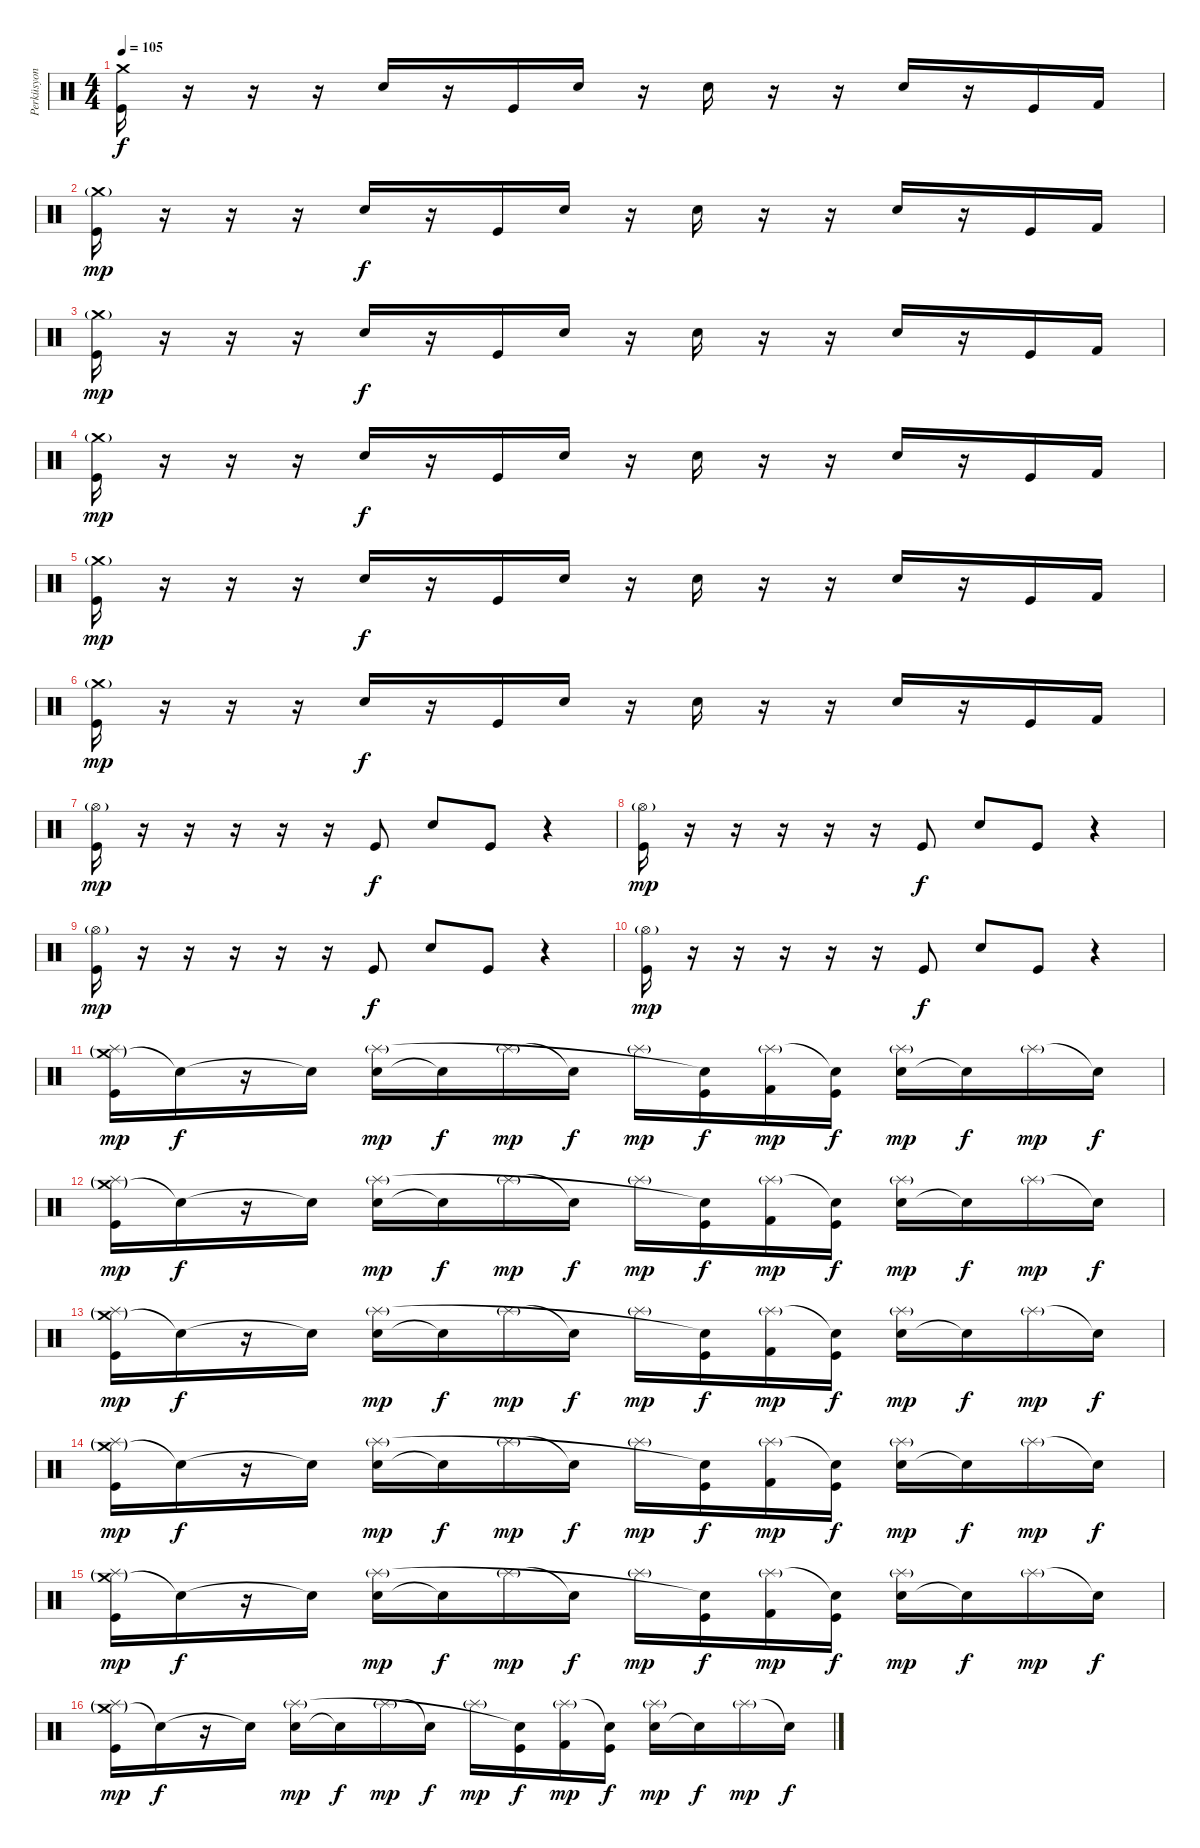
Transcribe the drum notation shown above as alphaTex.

\track ("Perküsyon" "Perküsyon") {instrument percussion}
\staff {score}
\articulation defaults
\ts (4 4)
\tempo 105
\clef neutral
\ks c
("Crash medium (hit)" "Kick (hit)").16{dy f} r.16 r.16 r.16 "Electric Snare (hit)".16 r.16 "Kick (hit)".16 "Electric Snare (hit)".16 r.16 "Electric Snare (hit)".16 r.16 r.16 "Electric Snare (hit)".16 r.16 "Kick (hit)".16 "Kick (hit) 2".16 |
("Crash medium (hit)"{g} "Kick (hit)").16{dy mp} r.16 r.16 r.16 "Electric Snare (hit)".16{dy f} r.16 "Kick (hit)".16 "Electric Snare (hit)".16 r.16 "Electric Snare (hit)".16 r.16 r.16 "Electric Snare (hit)".16 r.16 "Kick (hit)".16 "Kick (hit) 2".16 |
("Crash medium (hit)"{g} "Kick (hit)").16{dy mp} r.16 r.16 r.16 "Electric Snare (hit)".16{dy f} r.16 "Kick (hit)".16 "Electric Snare (hit)".16 r.16 "Electric Snare (hit)".16 r.16 r.16 "Electric Snare (hit)".16 r.16 "Kick (hit)".16 "Kick (hit) 2".16 |
("Crash medium (hit)"{g} "Kick (hit)").16{dy mp} r.16 r.16 r.16 "Electric Snare (hit)".16{dy f} r.16 "Kick (hit)".16 "Electric Snare (hit)".16 r.16 "Electric Snare (hit)".16 r.16 r.16 "Electric Snare (hit)".16 r.16 "Kick (hit)".16 "Kick (hit) 2".16 |
("Crash medium (hit)"{g} "Kick (hit)").16{dy mp} r.16 r.16 r.16 "Electric Snare (hit)".16{dy f} r.16 "Kick (hit)".16 "Electric Snare (hit)".16 r.16 "Electric Snare (hit)".16 r.16 r.16 "Electric Snare (hit)".16 r.16 "Kick (hit)".16 "Kick (hit) 2".16 |
("Crash medium (hit)"{g} "Kick (hit)").16{dy mp} r.16 r.16 r.16 "Electric Snare (hit)".16{dy f} r.16 "Kick (hit)".16 "Electric Snare (hit)".16 r.16 "Electric Snare (hit)".16 r.16 r.16 "Electric Snare (hit)".16 r.16 "Kick (hit)".16 "Kick (hit) 2".16 |
("Hi-Hat (open)"{g} "Kick (hit)").16{dy mp} r.16 r.16 r.16 r.16 r.16 "Kick (hit)".8{dy f} "Electric Snare (hit)".8 "Kick (hit)".8 r.4 |
("Hi-Hat (open)"{g} "Kick (hit)").16{dy mp} r.16 r.16 r.16 r.16 r.16 "Kick (hit)".8{dy f} "Electric Snare (hit)".8 "Kick (hit)".8 r.4 |
("Hi-Hat (open)"{g} "Kick (hit)").16{dy mp} r.16 r.16 r.16 r.16 r.16 "Kick (hit)".8{dy f} "Electric Snare (hit)".8 "Kick (hit)".8 r.4 |
("Hi-Hat (open)"{g} "Kick (hit)").16{dy mp} r.16 r.16 r.16 r.16 r.16 "Kick (hit)".8{dy f} "Electric Snare (hit)".8 "Kick (hit)".8 r.4 |
("Crash medium (hit)"{g} "Kick (hit)" "Splash (hit)"{g}).16{dy mp} "Snare (hit)"{t}.16{dy f} r.16 "Snare (hit)"{t}.16 ("Electric Snare (hit)" "Splash (hit)"{g}).16{dy mp} "Snare (hit)"{t}.16{dy f} "Splash (hit)"{g}.16{dy mp} "Snare (hit)"{t}.16{dy f} "Splash (hit)"{g}.16{dy mp} ("Kick (hit)" "Snare (hit)"{t}).16{dy f} ("Kick (hit) 2" "Splash (hit)"{g}).16{dy mp} ("Kick (hit)" "Snare (hit)"{t}).16{dy f} ("Electric Snare (hit)" "Splash (hit)"{g}).16{dy mp} "Snare (hit)"{t}.16{dy f} "Splash (hit)"{g}.16{dy mp} "Snare (hit)"{t}.16{dy f} |
("Crash medium (hit)"{g} "Kick (hit)" "Splash (hit)"{g}).16{dy mp} "Snare (hit)"{t}.16{dy f} r.16 "Snare (hit)"{t}.16 ("Electric Snare (hit)" "Splash (hit)"{g}).16{dy mp} "Snare (hit)"{t}.16{dy f} "Splash (hit)"{g}.16{dy mp} "Snare (hit)"{t}.16{dy f} "Splash (hit)"{g}.16{dy mp} ("Kick (hit)" "Snare (hit)"{t}).16{dy f} ("Kick (hit) 2" "Splash (hit)"{g}).16{dy mp} ("Kick (hit)" "Snare (hit)"{t}).16{dy f} ("Electric Snare (hit)" "Splash (hit)"{g}).16{dy mp} "Snare (hit)"{t}.16{dy f} "Splash (hit)"{g}.16{dy mp} "Snare (hit)"{t}.16{dy f} |
("Crash medium (hit)"{g} "Kick (hit)" "Splash (hit)"{g}).16{dy mp} "Snare (hit)"{t}.16{dy f} r.16 "Snare (hit)"{t}.16 ("Electric Snare (hit)" "Splash (hit)"{g}).16{dy mp} "Snare (hit)"{t}.16{dy f} "Splash (hit)"{g}.16{dy mp} "Snare (hit)"{t}.16{dy f} "Splash (hit)"{g}.16{dy mp} ("Kick (hit)" "Snare (hit)"{t}).16{dy f} ("Kick (hit) 2" "Splash (hit)"{g}).16{dy mp} ("Kick (hit)" "Snare (hit)"{t}).16{dy f} ("Electric Snare (hit)" "Splash (hit)"{g}).16{dy mp} "Snare (hit)"{t}.16{dy f} "Splash (hit)"{g}.16{dy mp} "Snare (hit)"{t}.16{dy f} |
("Crash medium (hit)"{g} "Kick (hit)" "Splash (hit)"{g}).16{dy mp} "Snare (hit)"{t}.16{dy f} r.16 "Snare (hit)"{t}.16 ("Electric Snare (hit)" "Splash (hit)"{g}).16{dy mp} "Snare (hit)"{t}.16{dy f} "Splash (hit)"{g}.16{dy mp} "Snare (hit)"{t}.16{dy f} "Splash (hit)"{g}.16{dy mp} ("Kick (hit)" "Snare (hit)"{t}).16{dy f} ("Kick (hit) 2" "Splash (hit)"{g}).16{dy mp} ("Kick (hit)" "Snare (hit)"{t}).16{dy f} ("Electric Snare (hit)" "Splash (hit)"{g}).16{dy mp} "Snare (hit)"{t}.16{dy f} "Splash (hit)"{g}.16{dy mp} "Snare (hit)"{t}.16{dy f} |
("Crash medium (hit)"{g} "Kick (hit)" "Splash (hit)"{g}).16{dy mp} "Snare (hit)"{t}.16{dy f} r.16 "Snare (hit)"{t}.16 ("Electric Snare (hit)" "Splash (hit)"{g}).16{dy mp} "Snare (hit)"{t}.16{dy f} "Splash (hit)"{g}.16{dy mp} "Snare (hit)"{t}.16{dy f} "Splash (hit)"{g}.16{dy mp} ("Kick (hit)" "Snare (hit)"{t}).16{dy f} ("Kick (hit) 2" "Splash (hit)"{g}).16{dy mp} ("Kick (hit)" "Snare (hit)"{t}).16{dy f} ("Electric Snare (hit)" "Splash (hit)"{g}).16{dy mp} "Snare (hit)"{t}.16{dy f} "Splash (hit)"{g}.16{dy mp} "Snare (hit)"{t}.16{dy f} |
("Crash medium (hit)"{g} "Kick (hit)" "Splash (hit)"{g}).16{dy mp} "Snare (hit)"{t}.16{dy f} r.16 "Snare (hit)"{t}.16 ("Electric Snare (hit)" "Splash (hit)"{g}).16{dy mp} "Snare (hit)"{t}.16{dy f} "Splash (hit)"{g}.16{dy mp} "Snare (hit)"{t}.16{dy f} "Splash (hit)"{g}.16{dy mp} ("Kick (hit)" "Snare (hit)"{t}).16{dy f} ("Kick (hit) 2" "Splash (hit)"{g}).16{dy mp} ("Kick (hit)" "Snare (hit)"{t}).16{dy f} ("Electric Snare (hit)" "Splash (hit)"{g}).16{dy mp} "Snare (hit)"{t}.16{dy f} "Splash (hit)"{g}.16{dy mp} "Snare (hit)"{t}.16{dy f}
